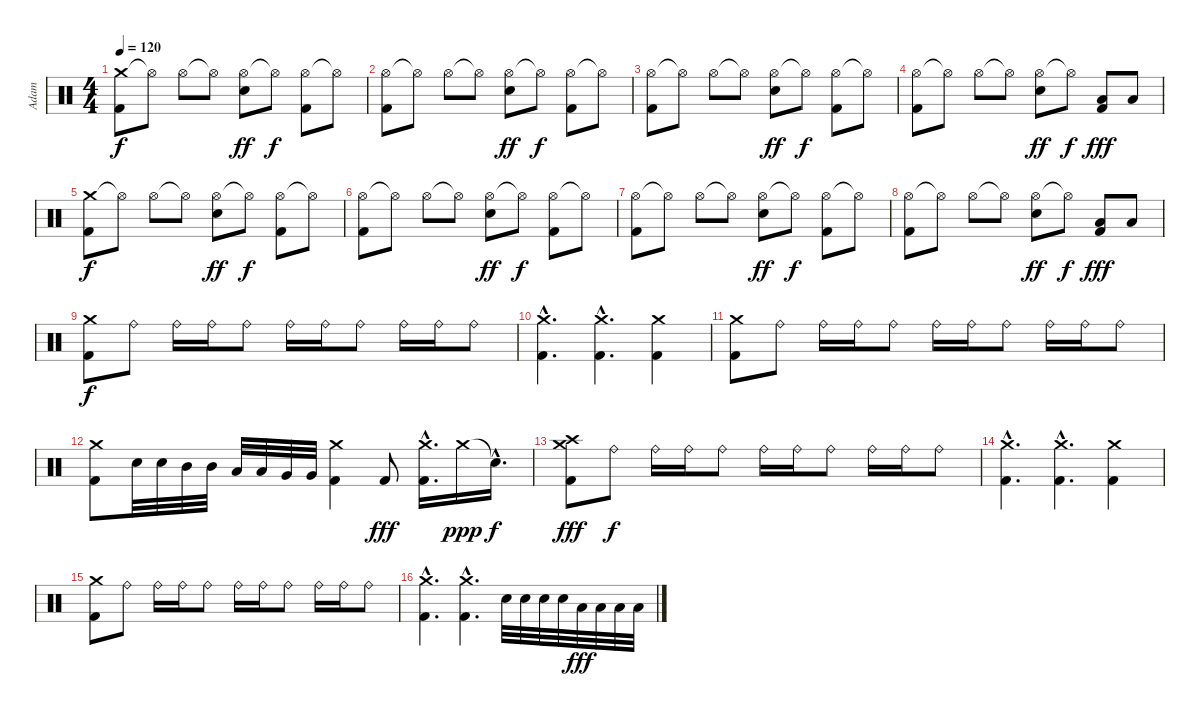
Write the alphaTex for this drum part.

\track ("Adam" "Adam") {instrument percussion}
\staff {score}
\articulation defaults
\ts (4 4)
\tempo 120
\clef neutral
\ks c
("Crash medium (hit)" "Kick (hit) 2").8{dy f} "Hi-Hat (open)"{t}.8 "Hi-Hat (open)".8 "Hi-Hat (open)"{t}.8 ("Hi-Hat (open)" "Electric Snare (hit)").8{dy ff} "Hi-Hat (open)"{t}.8{dy f} ("Hi-Hat (open)" "Kick (hit) 2").8 "Hi-Hat (open)"{t}.8 |
("Hi-Hat (open)" "Kick (hit) 2").8 "Hi-Hat (open)"{t}.8 "Hi-Hat (open)".8 "Hi-Hat (open)"{t}.8 ("Hi-Hat (open)" "Electric Snare (hit)").8{dy ff} "Hi-Hat (open)"{t}.8{dy f} ("Hi-Hat (open)" "Kick (hit) 2").8 "Hi-Hat (open)"{t}.8 |
("Hi-Hat (open)" "Kick (hit) 2").8 "Hi-Hat (open)"{t}.8 "Hi-Hat (open)".8 "Hi-Hat (open)"{t}.8 ("Hi-Hat (open)" "Electric Snare (hit)").8{dy ff} "Hi-Hat (open)"{t}.8{dy f} ("Hi-Hat (open)" "Kick (hit) 2").8 "Hi-Hat (open)"{t}.8 |
("Hi-Hat (open)" "Kick (hit) 2").8 "Hi-Hat (open)"{t}.8 "Hi-Hat (open)".8 "Hi-Hat (open)"{t}.8 ("Hi-Hat (open)" "Electric Snare (hit)").8{dy ff} "Hi-Hat (open)"{t}.8{dy f} ("Low Tom (hit)" "Kick (hit) 2").8{dy fff} "Low Floor Tom (hit)".8 |
("Crash medium (hit)" "Kick (hit) 2").8{dy f} "Hi-Hat (open)"{t}.8 "Hi-Hat (open)".8 "Hi-Hat (open)"{t}.8 ("Hi-Hat (open)" "Electric Snare (hit)").8{dy ff} "Hi-Hat (open)"{t}.8{dy f} ("Hi-Hat (open)" "Kick (hit) 2").8 "Hi-Hat (open)"{t}.8 |
("Hi-Hat (open)" "Kick (hit) 2").8 "Hi-Hat (open)"{t}.8 "Hi-Hat (open)".8 "Hi-Hat (open)"{t}.8 ("Hi-Hat (open)" "Electric Snare (hit)").8{dy ff} "Hi-Hat (open)"{t}.8{dy f} ("Hi-Hat (open)" "Kick (hit) 2").8 "Hi-Hat (open)"{t}.8 |
("Hi-Hat (open)" "Kick (hit) 2").8 "Hi-Hat (open)"{t}.8 "Hi-Hat (open)".8 "Hi-Hat (open)"{t}.8 ("Hi-Hat (open)" "Electric Snare (hit)").8{dy ff} "Hi-Hat (open)"{t}.8{dy f} ("Hi-Hat (open)" "Kick (hit) 2").8 "Hi-Hat (open)"{t}.8 |
("Hi-Hat (open)" "Kick (hit) 2").8 "Hi-Hat (open)"{t}.8 "Hi-Hat (open)".8 "Hi-Hat (open)"{t}.8 ("Hi-Hat (open)" "Electric Snare (hit)").8{dy ff} "Hi-Hat (open)"{t}.8{dy f} ("Low Tom (hit)" "Kick (hit) 2").8{dy fff} "Low Floor Tom (hit)".8 |
("Crash medium (hit)" "Kick (hit) 2").8{dy f} "Ride (bell)".8 "Ride (bell)".16 "Ride (bell)".16 "Ride (bell)".8 "Ride (bell)".16 "Ride (bell)".16 "Ride (bell)".8 "Ride (bell)".16 "Ride (bell)".16 "Ride (bell)".8 |
("Crash medium (hit)"{hac} "Kick (hit) 2"{hac}).4{d} ("Crash medium (hit)"{hac} "Kick (hit) 2"{hac}).4{d} ("Crash medium (hit)" "Kick (hit) 2").4 |
("Crash medium (hit)" "Kick (hit) 2").8 "Ride (bell)".8 "Ride (bell)".16 "Ride (bell)".16 "Ride (bell)".8 "Ride (bell)".16 "Ride (bell)".16 "Ride (bell)".8 "Ride (bell)".16 "Ride (bell)".16 "Ride (bell)".8 |
("Crash medium (hit)" "Kick (hit) 2").8 "Electric Snare (hit)".32 "Electric Snare (hit)".32 "Mid Tom (hit)".32 "Mid Tom (hit)".32 "Low Tom (hit)".32 "Low Tom (hit)".32 "Very Low Tom (hit)".32 "Very Low Tom (hit)".32 ("Crash medium (hit)" "Kick (hit) 2").4 "Kick (hit) 2".8{dy fff} ("Crash medium (hit)"{hac} "Kick (hit) 2"{hac}).16{d} "Crash medium (hit)".16{dy ppp} "Snare (hit)"{hac t}.16{d dy f} |
("Crash medium (hit)" "Crash high (hit)" "Kick (hit) 2").8{dy fff} "Ride (bell)".8{dy f} "Ride (bell)".16 "Ride (bell)".16 "Ride (bell)".8 "Ride (bell)".16 "Ride (bell)".16 "Ride (bell)".8 "Ride (bell)".16 "Ride (bell)".16 "Ride (bell)".8 |
("Crash medium (hit)"{hac} "Kick (hit) 2"{hac}).4{d} ("Crash medium (hit)"{hac} "Kick (hit) 2"{hac}).4{d} ("Crash medium (hit)" "Kick (hit) 2").4 |
("Crash medium (hit)" "Kick (hit) 2").8 "Ride (bell)".8 "Ride (bell)".16 "Ride (bell)".16 "Ride (bell)".8 "Ride (bell)".16 "Ride (bell)".16 "Ride (bell)".8 "Ride (bell)".16 "Ride (bell)".16 "Ride (bell)".8 |
("Crash medium (hit)"{hac} "Kick (hit) 2"{hac}).4{d} ("Crash medium (hit)"{hac} "Kick (hit) 2"{hac}).4{d} "Electric Snare (hit)".32 "Electric Snare (hit)".32 "Electric Snare (hit)".32 "Electric Snare (hit)".32 "Low Tom (hit)".32{dy fff} "Low Tom (hit)".32 "Low Tom (hit)".32 "Low Tom (hit)".32
